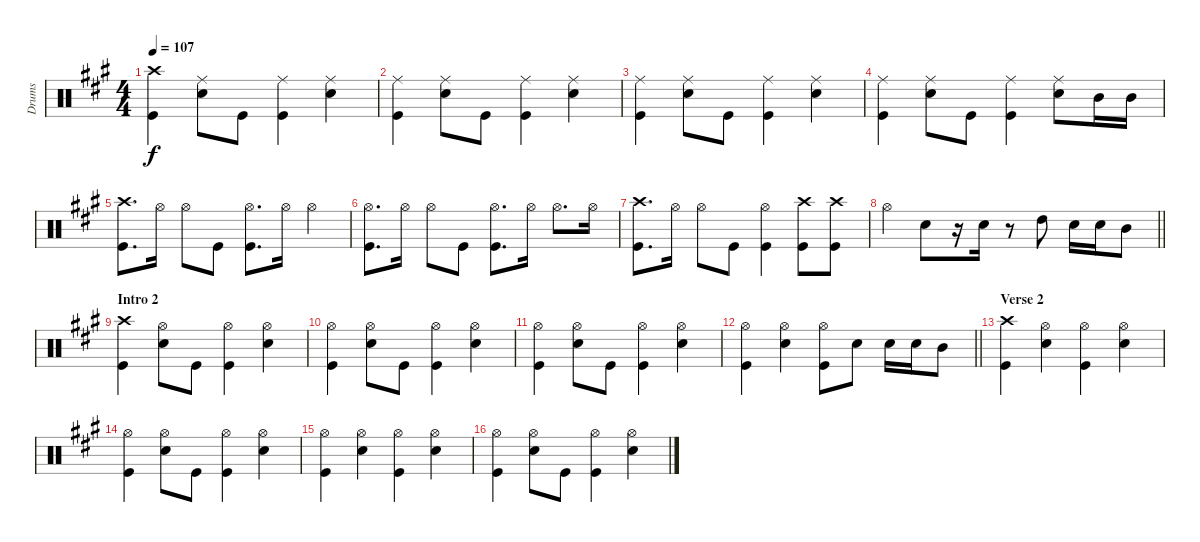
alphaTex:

\track ("Drums" "Drums") {instrument percussion}
\staff {score}
\articulation defaults
\ts (4 4)
\tempo 107
\clef neutral
\ks a
("Crash high (hit)" "Kick (hit)").4{dy f} ("Ride (middle)" "Snare (hit) 2").8 "Kick (hit)".8 ("Ride (middle)" "Kick (hit)").4 ("Ride (middle)" "Snare (hit) 2").4 |
("Ride (middle)" "Kick (hit)").4 ("Ride (middle)" "Snare (hit) 2").8 "Kick (hit)".8 ("Ride (middle)" "Kick (hit)").4 ("Ride (middle)" "Snare (hit) 2").4 |
("Ride (middle)" "Kick (hit)").4 ("Ride (middle)" "Snare (hit) 2").8 "Kick (hit)".8 ("Ride (middle)" "Kick (hit)").4 ("Ride (middle)" "Snare (hit) 2").4 |
("Ride (middle)" "Kick (hit)").4 ("Ride (middle)" "Snare (hit) 2").8 "Kick (hit)".8 ("Ride (middle)" "Kick (hit)").4 ("Ride (middle)" "Snare (hit) 2").8 "Mid Tom (hit)".16 "Mid Tom (hit)".16 |
("Crash high (hit)" "Kick (hit)").8{d} "Hi-Hat (open)".16 "Hi-Hat (open)".8 "Kick (hit)".8 ("Hi-Hat (open)" "Kick (hit)").8{d} "Hi-Hat (open)".16 "Hi-Hat (open)".4 |
("Hi-Hat (open)" "Kick (hit)").8{d} "Hi-Hat (open)".16 "Hi-Hat (open)".8 "Kick (hit)".8 ("Hi-Hat (open)" "Kick (hit)").8{d} "Hi-Hat (open)".16 "Hi-Hat (open)".8{d} "Hi-Hat (open)".16 |
("Crash high (hit)" "Kick (hit)").8{d} "Hi-Hat (open)".16 "Hi-Hat (open)".8 "Kick (hit)".8 ("Hi-Hat (open)" "Kick (hit)").4 ("Crash high (hit)" "Kick (hit)").8 ("Crash high (hit)" "Kick (hit)").8 |
\barLineRight lightlight "Hi-Hat (open)".4 "Snare (hit) 2".8
r.16 "Snare (hit) 2".16 r.8 "High Tom (hit)".8 "Snare (hit) 2".16 "Snare (hit) 2".16 "Mid Tom (hit)".8 |
\section ("" "Intro 2")
("Crash high (hit)" "Kick (hit)").4 ("Hi-Hat (open)" "Snare (hit) 2").8 "Kick (hit)".8 ("Hi-Hat (open)" "Kick (hit)").4 ("Hi-Hat (open)" "Snare (hit) 2").4 |
("Hi-Hat (open)" "Kick (hit)").4 ("Hi-Hat (open)" "Snare (hit) 2").8 "Kick (hit)".8 ("Hi-Hat (open)" "Kick (hit)").4 ("Hi-Hat (open)" "Snare (hit) 2").4 |
("Hi-Hat (open)" "Kick (hit)").4 ("Hi-Hat (open)" "Snare (hit) 2").8 "Kick (hit)".8 ("Hi-Hat (open)" "Kick (hit)").4 ("Hi-Hat (open)" "Snare (hit) 2").4 |
\barLineRight lightlight
("Hi-Hat (open)" "Kick (hit)").4 ("Hi-Hat (open)" "Snare (hit) 2").4 ("Hi-Hat (open)" "Kick (hit)").8 "Snare (hit) 2".8 "Snare (hit) 2".16 "Snare (hit) 2".16 "Mid Tom (hit)".8 |
\section ("" "Verse 2")
("Crash high (hit)" "Kick (hit)").4 ("Hi-Hat (open)" "Snare (hit) 2").4 ("Hi-Hat (open)" "Kick (hit)").4 ("Hi-Hat (open)" "Snare (hit) 2").4 |
("Hi-Hat (open)" "Kick (hit)").4 ("Hi-Hat (open)" "Snare (hit) 2").8 "Kick (hit)".8 ("Hi-Hat (open)" "Kick (hit)").4 ("Hi-Hat (open)" "Snare (hit) 2").4 |
("Hi-Hat (open)" "Kick (hit)").4 ("Hi-Hat (open)" "Snare (hit) 2").4 ("Hi-Hat (open)" "Kick (hit)").4 ("Hi-Hat (open)" "Snare (hit) 2").4 |
("Hi-Hat (open)" "Kick (hit)").4 ("Hi-Hat (open)" "Snare (hit) 2").8 "Kick (hit)".8 ("Hi-Hat (open)" "Kick (hit)").4 ("Hi-Hat (open)" "Snare (hit) 2").4
